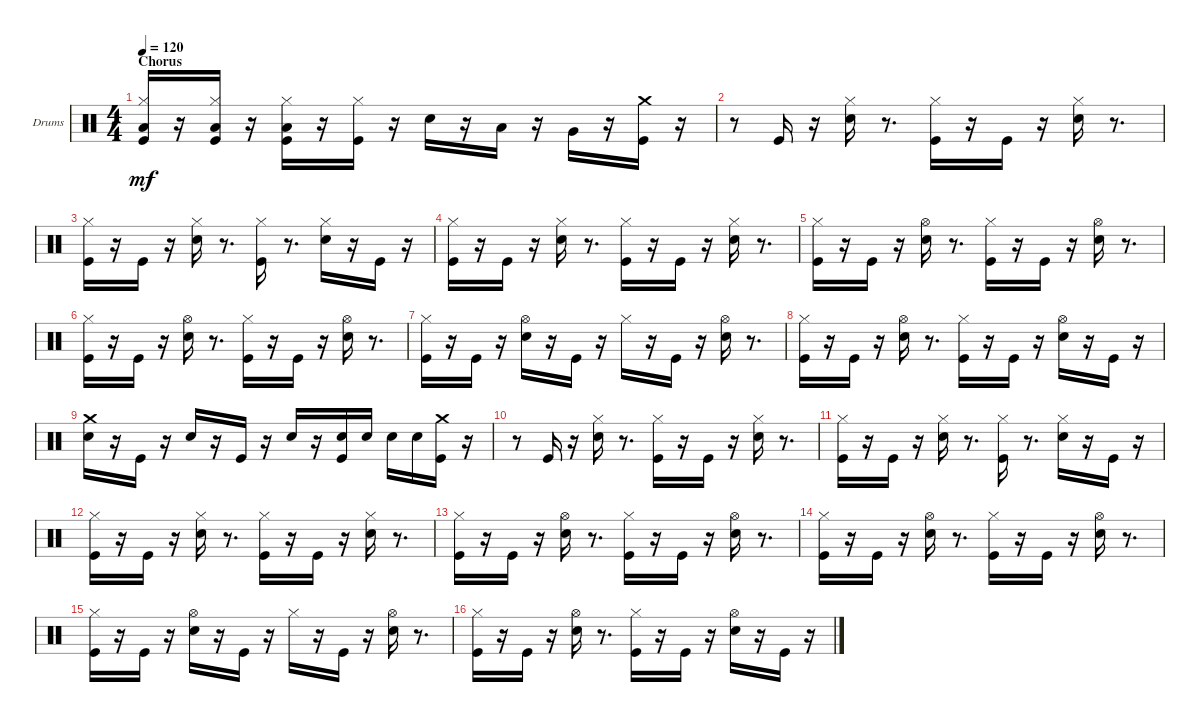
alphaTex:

\bracketExtendMode groupsimilarinstruments
\firstSystemTrackNameOrientation horizontal
\otherSystemsTrackNameOrientation horizontal
\track ("Drumkit" "Drums") {instrument percussion}
\staff {score}
\articulation defaults
\ts (4 4)
\section ("" "Chorus")
\tempo 120
\clef neutral
\ks aminor
("Kick (hit)" "Hi-Hat (closed)" "Low Tom (hit)").16{dy mf} r.16 ("Kick (hit)" "Hi-Hat (closed)" "Low Tom (hit)").16 r.16 ("Kick (hit)" "Hi-Hat (closed)" "Low Tom (hit)").16 r.16 ("Hi-Hat (closed)" "Kick (hit)").16 r.16 "Snare (hit) 2".16 r.16 "Low Tom (hit)".16 r.16 "Very Low Tom (hit)".16 r.16 ("Kick (hit)" "Crash medium (hit)").16 r.16 |
r.8 "Kick (hit)".16 r.16 ("Snare (hit) 2" "Hi-Hat (closed)").16 r.8{d} ("Kick (hit)" "Hi-Hat (closed)").16 r.16 "Kick (hit)".16 r.16 ("Snare (hit) 2" "Hi-Hat (closed)").16 r.8{d} |
("Kick (hit)" "Hi-Hat (closed)").16 r.16 "Kick (hit)".16 r.16 ("Snare (hit) 2" "Hi-Hat (closed)").16 r.8{d} ("Kick (hit)" "Hi-Hat (closed)").16 r.8{d} ("Snare (hit) 2" "Hi-Hat (closed)").16 r.16 "Kick (hit)".16 r.16 |
("Kick (hit)" "Hi-Hat (closed)").16 r.16 "Kick (hit)".16 r.16 ("Snare (hit) 2" "Hi-Hat (closed)").16 r.8{d} ("Kick (hit)" "Hi-Hat (closed)").16 r.16 "Kick (hit)".16 r.16 ("Snare (hit) 2" "Hi-Hat (closed)").16 r.8{d} |
("Kick (hit)" "Hi-Hat (closed)").16 r.16 "Kick (hit)".16 r.16 ("Snare (hit) 2" "Hi-Hat (open)").16 r.8{d} ("Kick (hit)" "Hi-Hat (closed)").16 r.16 "Kick (hit)".16 r.16 ("Snare (hit) 2" "Hi-Hat (open)").16 r.8{d} |
("Kick (hit)" "Hi-Hat (closed)").16 r.16 "Kick (hit)".16 r.16 ("Snare (hit) 2" "Hi-Hat (open)").16 r.8{d} ("Kick (hit)" "Hi-Hat (closed)").16 r.16 "Kick (hit)".16 r.16 ("Snare (hit) 2" "Hi-Hat (open)").16 r.8{d} |
("Kick (hit)" "Hi-Hat (closed)").16 r.16 "Kick (hit)".16 r.16 ("Snare (hit) 2" "Hi-Hat (open)").16 r.16 "Kick (hit)".16 r.16 "Hi-Hat (closed)".16 r.16 "Kick (hit)".16 r.16 ("Snare (hit) 2" "Hi-Hat (open)").16 r.8{d} |
("Kick (hit)" "Hi-Hat (closed)").16 r.16 "Kick (hit)".16 r.16 ("Snare (hit) 2" "Hi-Hat (open)").16 r.8{d} ("Kick (hit)" "Hi-Hat (closed)").16 r.16 "Kick (hit)".16 r.16 ("Snare (hit) 2" "Hi-Hat (open)").16 r.16 "Kick (hit)".16 r.16 |
("Snare (hit) 2" "Crash medium (hit)").16 r.16 "Kick (hit)".16 r.16 "Snare (hit) 2".16 r.16 "Kick (hit)".16 r.16 "Snare (hit) 2".16 r.16 ("Kick (hit)" "Snare (hit) 2").16 "Snare (hit) 2".16 "Snare (hit) 2".16 "Snare (hit) 2".16 ("Kick (hit)" "Crash medium (hit)").16 r.16 |
r.8 "Kick (hit)".16 r.16 ("Snare (hit) 2" "Hi-Hat (closed)").16 r.8{d} ("Kick (hit)" "Hi-Hat (closed)").16 r.16 "Kick (hit)".16 r.16 ("Snare (hit) 2" "Hi-Hat (closed)").16 r.8{d} |
("Kick (hit)" "Hi-Hat (closed)").16 r.16 "Kick (hit)".16 r.16 ("Snare (hit) 2" "Hi-Hat (closed)").16 r.8{d} ("Kick (hit)" "Hi-Hat (closed)").16 r.8{d} ("Snare (hit) 2" "Hi-Hat (closed)").16 r.16 "Kick (hit)".16 r.16 |
("Kick (hit)" "Hi-Hat (closed)").16 r.16 "Kick (hit)".16 r.16 ("Snare (hit) 2" "Hi-Hat (closed)").16 r.8{d} ("Kick (hit)" "Hi-Hat (closed)").16 r.16 "Kick (hit)".16 r.16 ("Snare (hit) 2" "Hi-Hat (closed)").16 r.8{d} |
("Kick (hit)" "Hi-Hat (closed)").16 r.16 "Kick (hit)".16 r.16 ("Snare (hit) 2" "Hi-Hat (open)").16 r.8{d} ("Kick (hit)" "Hi-Hat (closed)").16 r.16 "Kick (hit)".16 r.16 ("Snare (hit) 2" "Hi-Hat (open)").16 r.8{d} |
("Kick (hit)" "Hi-Hat (closed)").16 r.16 "Kick (hit)".16 r.16 ("Snare (hit) 2" "Hi-Hat (open)").16 r.8{d} ("Kick (hit)" "Hi-Hat (closed)").16 r.16 "Kick (hit)".16 r.16 ("Snare (hit) 2" "Hi-Hat (open)").16 r.8{d} |
("Kick (hit)" "Hi-Hat (closed)").16 r.16 "Kick (hit)".16 r.16 ("Snare (hit) 2" "Hi-Hat (open)").16 r.16 "Kick (hit)".16 r.16 "Hi-Hat (closed)".16 r.16 "Kick (hit)".16 r.16 ("Snare (hit) 2" "Hi-Hat (open)").16 r.8{d} |
("Kick (hit)" "Hi-Hat (closed)").16 r.16 "Kick (hit)".16 r.16 ("Snare (hit) 2" "Hi-Hat (open)").16 r.8{d} ("Kick (hit)" "Hi-Hat (closed)").16 r.16 "Kick (hit)".16 r.16 ("Snare (hit) 2" "Hi-Hat (open)").16 r.16 "Kick (hit)".16 r.16
